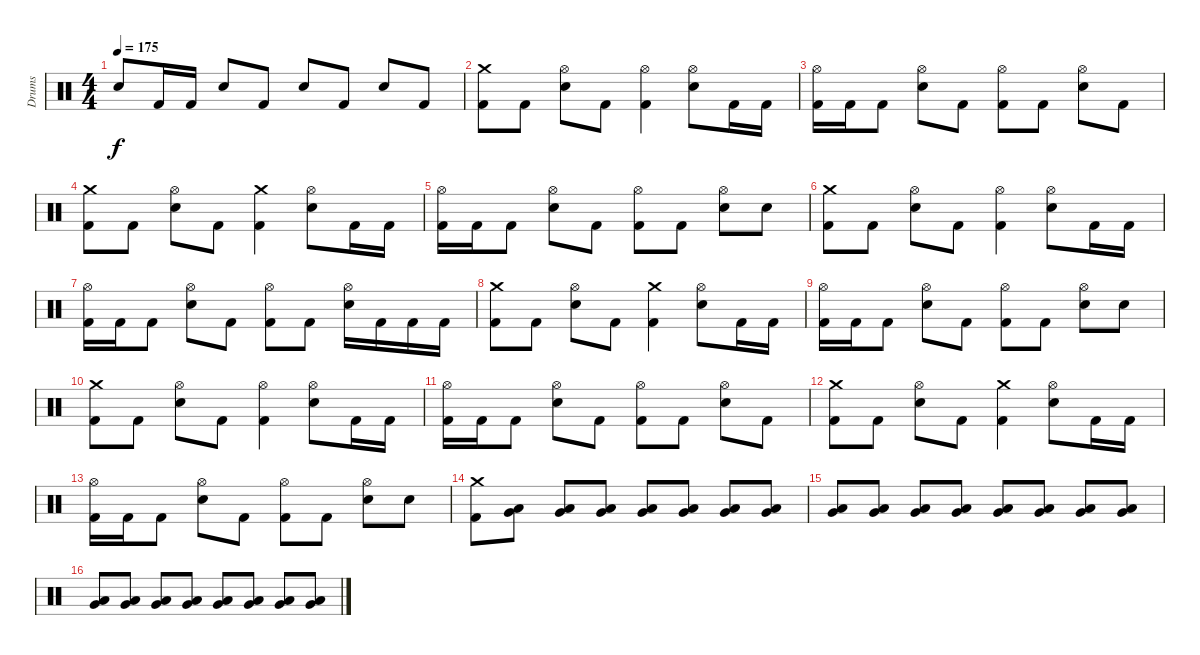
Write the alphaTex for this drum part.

\track ("Drums" "Drums") {instrument percussion}
\staff {score}
\articulation defaults
\ts (4 4)
\tempo 175
\clef neutral
\ks c "Electric Snare (hit)".8{dy f} "Kick (hit) 2".16 "Kick (hit) 2".16 "Electric Snare (hit)".8 "Kick (hit) 2".8 "Electric Snare (hit)".8 "Kick (hit) 2".8 "Electric Snare (hit)".8 "Kick (hit) 2".8
|
("Kick (hit) 2" "Crash medium (hit)").8 "Kick (hit) 2".8 ("Hi-Hat (open)" "Electric Snare (hit)").8 "Kick (hit) 2".8 ("Hi-Hat (open)" "Kick (hit) 2").4 ("Hi-Hat (open)" "Electric Snare (hit)").8 "Kick (hit) 2".16 "Kick (hit) 2".16 |
("Hi-Hat (open)" "Kick (hit) 2").16 "Kick (hit) 2".16 "Kick (hit) 2".8 ("Hi-Hat (open)" "Electric Snare (hit)").8 "Kick (hit) 2".8 ("Hi-Hat (open)" "Kick (hit) 2").8 "Kick (hit) 2".8 ("Hi-Hat (open)" "Electric Snare (hit)").8 "Kick (hit) 2".8 |
("Kick (hit) 2" "Crash medium (hit)").8 "Kick (hit) 2".8 ("Hi-Hat (open)" "Electric Snare (hit)").8 "Kick (hit) 2".8 ("Crash medium (hit)" "Kick (hit) 2").4 ("Hi-Hat (open)" "Electric Snare (hit)").8 "Kick (hit) 2".16 "Kick (hit) 2".16 |
("Hi-Hat (open)" "Kick (hit) 2").16 "Kick (hit) 2".16 "Kick (hit) 2".8 ("Hi-Hat (open)" "Electric Snare (hit)").8 "Kick (hit) 2".8 ("Hi-Hat (open)" "Kick (hit) 2").8 "Kick (hit) 2".8 ("Hi-Hat (open)" "Electric Snare (hit)").8 "Electric Snare (hit)".8 |
("Kick (hit) 2" "Crash medium (hit)").8 "Kick (hit) 2".8 ("Hi-Hat (open)" "Electric Snare (hit)").8 "Kick (hit) 2".8 ("Hi-Hat (open)" "Kick (hit) 2").4 ("Hi-Hat (open)" "Electric Snare (hit)").8 "Kick (hit) 2".16 "Kick (hit) 2".16 |
("Hi-Hat (open)" "Kick (hit) 2").16 "Kick (hit) 2".16 "Kick (hit) 2".8 ("Hi-Hat (open)" "Electric Snare (hit)").8 "Kick (hit) 2".8 ("Hi-Hat (open)" "Kick (hit) 2").8 "Kick (hit) 2".8 ("Hi-Hat (open)" "Electric Snare (hit)").16 "Kick (hit) 2".16 "Kick (hit) 2".16 "Kick (hit) 2".16 |
("Kick (hit) 2" "Crash medium (hit)").8 "Kick (hit) 2".8 ("Hi-Hat (open)" "Electric Snare (hit)").8 "Kick (hit) 2".8 ("Crash medium (hit)" "Kick (hit) 2").4 ("Hi-Hat (open)" "Electric Snare (hit)").8 "Kick (hit) 2".16 "Kick (hit) 2".16 |
("Hi-Hat (open)" "Kick (hit) 2").16 "Kick (hit) 2".16 "Kick (hit) 2".8 ("Hi-Hat (open)" "Electric Snare (hit)").8 "Kick (hit) 2".8 ("Hi-Hat (open)" "Kick (hit) 2").8 "Kick (hit) 2".8 ("Hi-Hat (open)" "Electric Snare (hit)").8 "Electric Snare (hit)".8 |
("Kick (hit) 2" "Crash medium (hit)").8 "Kick (hit) 2".8 ("Hi-Hat (open)" "Electric Snare (hit)").8 "Kick (hit) 2".8 ("Hi-Hat (open)" "Kick (hit) 2").4 ("Hi-Hat (open)" "Electric Snare (hit)").8 "Kick (hit) 2".16 "Kick (hit) 2".16 |
("Hi-Hat (open)" "Kick (hit) 2").16 "Kick (hit) 2".16 "Kick (hit) 2".8 ("Hi-Hat (open)" "Electric Snare (hit)").8 "Kick (hit) 2".8 ("Hi-Hat (open)" "Kick (hit) 2").8 "Kick (hit) 2".8 ("Hi-Hat (open)" "Electric Snare (hit)").8 "Kick (hit) 2".8 |
("Kick (hit) 2" "Crash medium (hit)").8 "Kick (hit) 2".8 ("Hi-Hat (open)" "Electric Snare (hit)").8 "Kick (hit) 2".8 ("Crash medium (hit)" "Kick (hit) 2").4 ("Hi-Hat (open)" "Electric Snare (hit)").8 "Kick (hit) 2".16 "Kick (hit) 2".16 |
("Hi-Hat (open)" "Kick (hit) 2").16 "Kick (hit) 2".16 "Kick (hit) 2".8 ("Hi-Hat (open)" "Electric Snare (hit)").8 "Kick (hit) 2".8 ("Hi-Hat (open)" "Kick (hit) 2").8 "Kick (hit) 2".8 ("Hi-Hat (open)" "Electric Snare (hit)").8 "Electric Snare (hit)".8 |
("Kick (hit) 2" "Crash medium (hit)").8 ("Low Tom (hit)" "Very Low Tom (hit)").8 ("Low Tom (hit)" "Very Low Tom (hit)").8 ("Low Tom (hit)" "Very Low Tom (hit)").8 ("Low Tom (hit)" "Very Low Tom (hit)").8 ("Low Tom (hit)" "Very Low Tom (hit)").8 ("Low Tom (hit)" "Very Low Tom (hit)").8 ("Low Tom (hit)" "Very Low Tom (hit)").8 |
("Low Tom (hit)" "Very Low Tom (hit)").8 ("Low Tom (hit)" "Very Low Tom (hit)").8 ("Low Tom (hit)" "Very Low Tom (hit)").8 ("Low Tom (hit)" "Very Low Tom (hit)").8 ("Low Tom (hit)" "Very Low Tom (hit)").8 ("Low Tom (hit)" "Very Low Tom (hit)").8 ("Low Tom (hit)" "Very Low Tom (hit)").8 ("Low Tom (hit)" "Very Low Tom (hit)").8 |
("Low Floor Tom (hit)" "Very Low Tom (hit)").8 ("Low Floor Tom (hit)" "Very Low Tom (hit)").8 ("Low Floor Tom (hit)" "Very Low Tom (hit)").8 ("Low Floor Tom (hit)" "Very Low Tom (hit)").8 ("Very Low Tom (hit)" "Low Floor Tom (hit)").8 ("Very Low Tom (hit)" "Low Floor Tom (hit)").8 ("Very Low Tom (hit)" "Low Floor Tom (hit)").8 ("Very Low Tom (hit)" "Low Floor Tom (hit)").8
